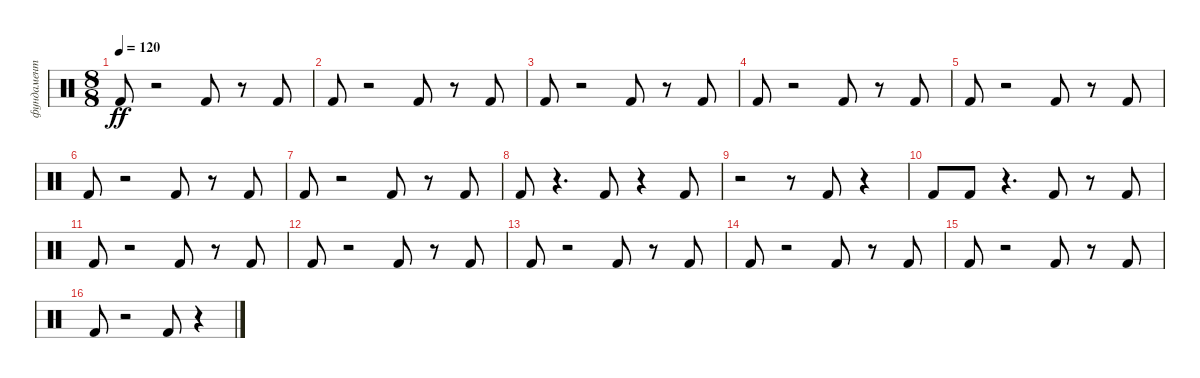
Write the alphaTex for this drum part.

\track ("фундамент" "фундамент") {instrument percussion}
\staff {score}
\articulation defaults
\ts (8 8)
\tempo 120
\clef neutral
\ks c "Kick (hit) 2".8{dy ff}
r.2 "Kick (hit) 2".8 r.8 "Kick (hit) 2".8 |
"Kick (hit) 2".8 r.2 "Kick (hit) 2".8 r.8 "Kick (hit) 2".8 |
"Kick (hit) 2".8 r.2 "Kick (hit) 2".8 r.8 "Kick (hit) 2".8 |
"Kick (hit) 2".8 r.2 "Kick (hit) 2".8 r.8 "Kick (hit) 2".8 |
"Kick (hit) 2".8 r.2 "Kick (hit) 2".8 r.8 "Kick (hit) 2".8 |
"Kick (hit) 2".8 r.2 "Kick (hit) 2".8 r.8 "Kick (hit) 2".8 |
"Kick (hit) 2".8 r.2 "Kick (hit) 2".8 r.8 "Kick (hit) 2".8 |
"Kick (hit) 2".8 r.4{d} "Kick (hit) 2".8 r.4 "Kick (hit) 2".8 |
r.2 r.8 "Kick (hit) 2".8 r.4 |
"Kick (hit) 2".8 "Kick (hit) 2".8 r.4{d} "Kick (hit) 2".8 r.8 "Kick (hit) 2".8 |
"Kick (hit) 2".8 r.2 "Kick (hit) 2".8 r.8 "Kick (hit) 2".8 |
"Kick (hit) 2".8 r.2 "Kick (hit) 2".8 r.8 "Kick (hit) 2".8 |
"Kick (hit) 2".8 r.2 "Kick (hit) 2".8 r.8 "Kick (hit) 2".8 |
"Kick (hit) 2".8 r.2 "Kick (hit) 2".8 r.8 "Kick (hit) 2".8 |
"Kick (hit) 2".8 r.2 "Kick (hit) 2".8 r.8 "Kick (hit) 2".8 |
"Kick (hit) 2".8 r.2 "Kick (hit) 2".8 r.4
